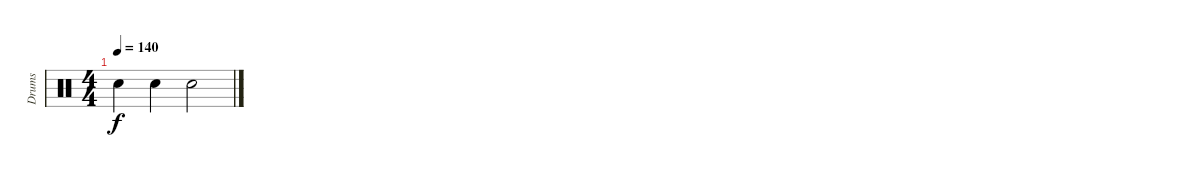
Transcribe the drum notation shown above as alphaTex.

\track ("Drums" "Drums") {instrument percussion}
\staff {score}
\articulation defaults
\ts (4 4)
\tempo 140
\clef neutral
\ks c "Snare (hit) 2".4{dy f} "Snare (hit) 2".4 "Snare (hit) 2".2
